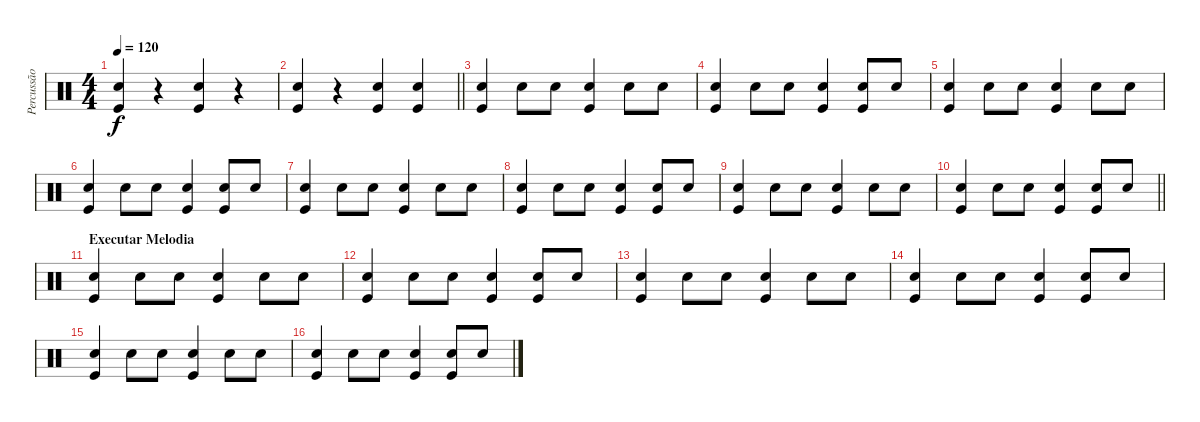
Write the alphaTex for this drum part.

\track ("Percussão" "Percussão") {instrument percussion}
\staff {score}
\articulation defaults
\ts (4 4)
\tempo 120
\clef neutral
\ks c
("Snare (hit) 2" "Kick (hit)").4{dy f} r.4 ("Snare (hit) 2" "Kick (hit)").4 r.4 |
\barLineRight lightlight
("Snare (hit) 2" "Kick (hit)").4 r.4 ("Snare (hit) 2" "Kick (hit)").4 ("Snare (hit) 2" "Kick (hit)").4 |
("Snare (hit) 2" "Kick (hit)").4 "Snare (hit) 2".8 "Snare (hit) 2".8 ("Snare (hit) 2" "Kick (hit)").4 "Snare (hit) 2".8 "Snare (hit) 2".8 |
("Snare (hit) 2" "Kick (hit)").4 "Snare (hit) 2".8 "Snare (hit) 2".8 ("Snare (hit) 2" "Kick (hit)").4 ("Snare (hit) 2" "Kick (hit)").8 "Snare (hit) 2".8 |
("Snare (hit) 2" "Kick (hit)").4 "Snare (hit) 2".8 "Snare (hit) 2".8 ("Snare (hit) 2" "Kick (hit)").4 "Snare (hit) 2".8 "Snare (hit) 2".8 |
("Snare (hit) 2" "Kick (hit)").4 "Snare (hit) 2".8 "Snare (hit) 2".8 ("Snare (hit) 2" "Kick (hit)").4 ("Snare (hit) 2" "Kick (hit)").8 "Snare (hit) 2".8 |
("Snare (hit) 2" "Kick (hit)").4 "Snare (hit) 2".8 "Snare (hit) 2".8 ("Snare (hit) 2" "Kick (hit)").4 "Snare (hit) 2".8 "Snare (hit) 2".8 |
("Snare (hit) 2" "Kick (hit)").4 "Snare (hit) 2".8 "Snare (hit) 2".8 ("Snare (hit) 2" "Kick (hit)").4 ("Snare (hit) 2" "Kick (hit)").8 "Snare (hit) 2".8 |
("Snare (hit) 2" "Kick (hit)").4 "Snare (hit) 2".8 "Snare (hit) 2".8 ("Snare (hit) 2" "Kick (hit)").4 "Snare (hit) 2".8 "Snare (hit) 2".8 |
\barLineRight lightlight
("Snare (hit) 2" "Kick (hit)").4 "Snare (hit) 2".8 "Snare (hit) 2".8 ("Snare (hit) 2" "Kick (hit)").4 ("Snare (hit) 2" "Kick (hit)").8 "Snare (hit) 2".8 |
\section ("" "Executar Melodia")
("Snare (hit) 2" "Kick (hit)").4 "Snare (hit) 2".8 "Snare (hit) 2".8 ("Snare (hit) 2" "Kick (hit)").4 "Snare (hit) 2".8 "Snare (hit) 2".8 |
("Snare (hit) 2" "Kick (hit)").4 "Snare (hit) 2".8 "Snare (hit) 2".8 ("Snare (hit) 2" "Kick (hit)").4 ("Snare (hit) 2" "Kick (hit)").8 "Snare (hit) 2".8 |
("Snare (hit) 2" "Kick (hit)").4 "Snare (hit) 2".8 "Snare (hit) 2".8 ("Snare (hit) 2" "Kick (hit)").4 "Snare (hit) 2".8 "Snare (hit) 2".8 |
("Snare (hit) 2" "Kick (hit)").4 "Snare (hit) 2".8 "Snare (hit) 2".8 ("Snare (hit) 2" "Kick (hit)").4 ("Snare (hit) 2" "Kick (hit)").8 "Snare (hit) 2".8 |
("Snare (hit) 2" "Kick (hit)").4 "Snare (hit) 2".8 "Snare (hit) 2".8 ("Snare (hit) 2" "Kick (hit)").4 "Snare (hit) 2".8 "Snare (hit) 2".8 |
("Snare (hit) 2" "Kick (hit)").4 "Snare (hit) 2".8 "Snare (hit) 2".8 ("Snare (hit) 2" "Kick (hit)").4 ("Snare (hit) 2" "Kick (hit)").8 "Snare (hit) 2".8
